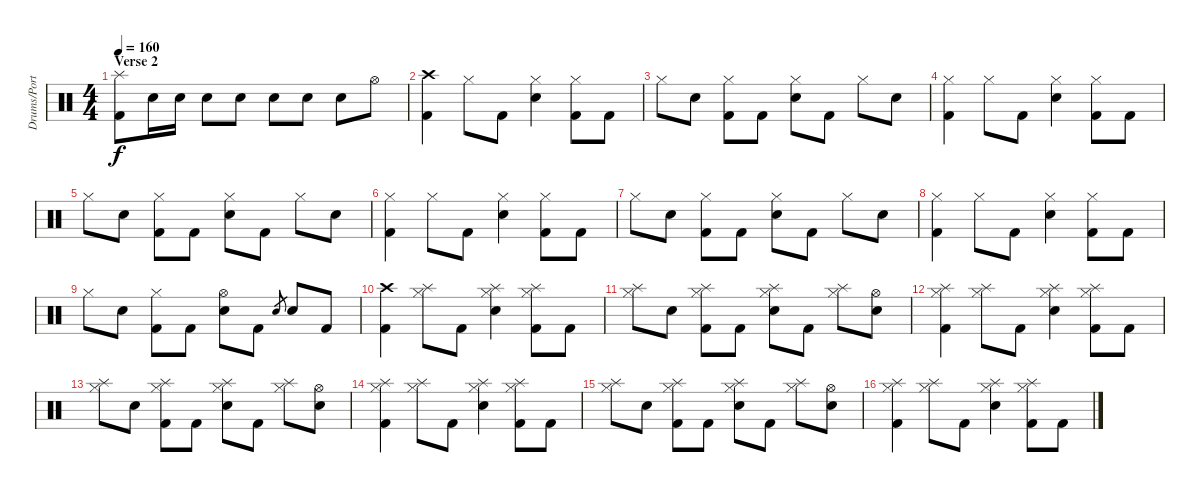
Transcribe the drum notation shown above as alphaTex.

\track ("Drums/Portnoy" "Drums/Port") {instrument percussion}
\staff {score}
\articulation defaults
\ts (4 4)
\section ("" "Verse 2")
\tempo 160
\clef neutral
\ks c
("Splash (hit)" "Kick (hit) 2").8{dy f} "Electric Snare (hit)".16 "Electric Snare (hit)".16 "Electric Snare (hit)".8 "Electric Snare (hit)".8 "Electric Snare (hit)".8 "Electric Snare (hit)".8 "Electric Snare (hit)".8 "Hi-Hat (open)".8 |
("Crash high (hit)" "Kick (hit) 2").4 "Hi-Hat (closed)".8 "Kick (hit) 2".8 ("Hi-Hat (closed)" "Electric Snare (hit)").4 ("Hi-Hat (closed)" "Kick (hit) 2").8 "Kick (hit) 2".8 |
"Hi-Hat (closed)".8 "Electric Snare (hit)".8 ("Hi-Hat (closed)" "Kick (hit) 2").8 "Kick (hit) 2".8 ("Hi-Hat (closed)" "Electric Snare (hit)").8 "Kick (hit) 2".8 "Hi-Hat (closed)".8 "Electric Snare (hit)".8 |
("Hi-Hat (closed)" "Kick (hit) 2").4 "Hi-Hat (closed)".8 "Kick (hit) 2".8 ("Hi-Hat (closed)" "Electric Snare (hit)").4 ("Hi-Hat (closed)" "Kick (hit) 2").8 "Kick (hit) 2".8 |
"Hi-Hat (closed)".8 "Electric Snare (hit)".8 ("Hi-Hat (closed)" "Kick (hit) 2").8 "Kick (hit) 2".8 ("Hi-Hat (closed)" "Electric Snare (hit)").8 "Kick (hit) 2".8 "Hi-Hat (closed)".8 "Electric Snare (hit)".8 |
("Hi-Hat (closed)" "Kick (hit) 2").4 "Hi-Hat (closed)".8 "Kick (hit) 2".8 ("Hi-Hat (closed)" "Electric Snare (hit)").4 ("Hi-Hat (closed)" "Kick (hit) 2").8 "Kick (hit) 2".8 |
"Hi-Hat (closed)".8 "Electric Snare (hit)".8 ("Hi-Hat (closed)" "Kick (hit) 2").8 "Kick (hit) 2".8 ("Hi-Hat (closed)" "Electric Snare (hit)").8 "Kick (hit) 2".8 "Hi-Hat (closed)".8 "Electric Snare (hit)".8 |
("Hi-Hat (closed)" "Kick (hit) 2").4 "Hi-Hat (closed)".8 "Kick (hit) 2".8 ("Hi-Hat (closed)" "Electric Snare (hit)").4 ("Hi-Hat (closed)" "Kick (hit) 2").8 "Kick (hit) 2".8 |
"Hi-Hat (closed)".8 "Electric Snare (hit)".8 ("Hi-Hat (closed)" "Kick (hit) 2").8 "Kick (hit) 2".8 ("Hi-Hat (open)" "Electric Snare (hit)").8 "Kick (hit) 2".8 "Electric Snare (hit)".8{gr} "Electric Snare (hit)".8 "Kick (hit) 2".8 |
("Crash high (hit)" "Kick (hit) 2").4 ("Hi-Hat (closed)" "Splash (hit)").8 "Kick (hit) 2".8 ("Hi-Hat (closed)" "Splash (hit)" "Electric Snare (hit)").4 ("Hi-Hat (closed)" "Splash (hit)" "Kick (hit) 2").8 "Kick (hit) 2".8 |
("Hi-Hat (closed)" "Splash (hit)").8 "Electric Snare (hit)".8 ("Hi-Hat (closed)" "Splash (hit)" "Kick (hit) 2").8 "Kick (hit) 2".8 ("Hi-Hat (closed)" "Splash (hit)" "Electric Snare (hit)").8 "Kick (hit) 2".8 ("Hi-Hat (closed)" "Splash (hit)").8 ("Hi-Hat (open)" "Electric Snare (hit)").8 |
("Hi-Hat (closed)" "Splash (hit)" "Kick (hit) 2").4 ("Hi-Hat (closed)" "Splash (hit)").8 "Kick (hit) 2".8 ("Hi-Hat (closed)" "Splash (hit)" "Electric Snare (hit)").4 ("Hi-Hat (closed)" "Splash (hit)" "Kick (hit) 2").8 "Kick (hit) 2".8 |
("Hi-Hat (closed)" "Splash (hit)").8 "Electric Snare (hit)".8 ("Hi-Hat (closed)" "Splash (hit)" "Kick (hit) 2").8 "Kick (hit) 2".8 ("Hi-Hat (closed)" "Splash (hit)" "Electric Snare (hit)").8 "Kick (hit) 2".8 ("Hi-Hat (closed)" "Splash (hit)").8 ("Hi-Hat (open)" "Electric Snare (hit)").8 |
("Hi-Hat (closed)" "Splash (hit)" "Kick (hit) 2").4 ("Hi-Hat (closed)" "Splash (hit)").8 "Kick (hit) 2".8 ("Hi-Hat (closed)" "Splash (hit)" "Electric Snare (hit)").4 ("Hi-Hat (closed)" "Splash (hit)" "Kick (hit) 2").8 "Kick (hit) 2".8 |
("Hi-Hat (closed)" "Splash (hit)").8 "Electric Snare (hit)".8 ("Hi-Hat (closed)" "Splash (hit)" "Kick (hit) 2").8 "Kick (hit) 2".8 ("Hi-Hat (closed)" "Splash (hit)" "Electric Snare (hit)").8 "Kick (hit) 2".8 ("Hi-Hat (closed)" "Splash (hit)").8 ("Hi-Hat (open)" "Electric Snare (hit)").8 |
("Hi-Hat (closed)" "Splash (hit)" "Kick (hit) 2").4 ("Hi-Hat (closed)" "Splash (hit)").8 "Kick (hit) 2".8 ("Hi-Hat (closed)" "Splash (hit)" "Electric Snare (hit)").4 ("Hi-Hat (closed)" "Splash (hit)" "Kick (hit) 2").8 "Kick (hit) 2".8
